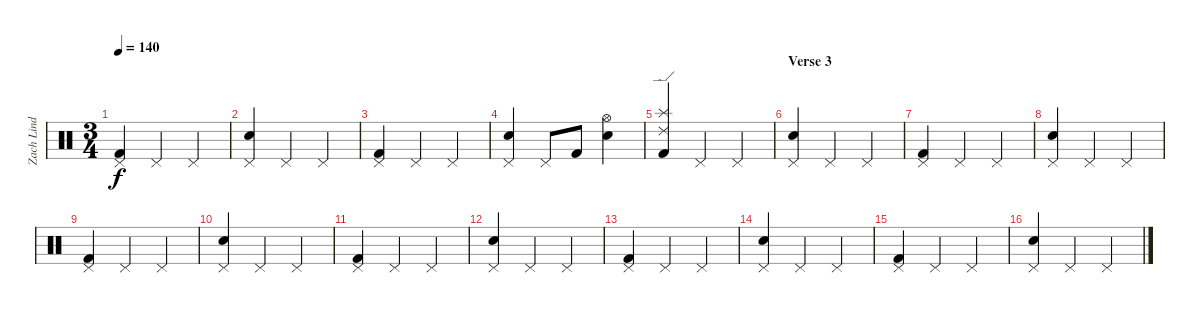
\track ("Zach Lind - Drums" "Zach Lind ") {instrument percussion}
\staff {score}
\articulation defaults
\ts (3 4)
\tempo 140
\clef neutral
\ks c
("Pedal Hi-Hat (hit)" "Kick (hit) 2").4{dy f} "Pedal Hi-Hat (hit)".4 "Pedal Hi-Hat (hit)".4 |
("Pedal Hi-Hat (hit)" "Electric Snare (hit)").4 "Pedal Hi-Hat (hit)".4 "Pedal Hi-Hat (hit)".4 |
("Pedal Hi-Hat (hit)" "Kick (hit) 2").4 "Pedal Hi-Hat (hit)".4 "Pedal Hi-Hat (hit)".4 |
("Pedal Hi-Hat (hit)" "Electric Snare (hit)").4 "Pedal Hi-Hat (hit)".8 "Kick (hit) 2".8 ("Hi-Hat (open)" "Electric Snare (hit)").4 |
("Splash (hit)" "Ride (edge) 2" "Kick (hit) 2").4 "Pedal Hi-Hat (hit)".4 "Pedal Hi-Hat (hit)".4 |
\section ("" "Verse 3")
("Pedal Hi-Hat (hit)" "Electric Snare (hit)").4 "Pedal Hi-Hat (hit)".4 "Pedal Hi-Hat (hit)".4 |
("Pedal Hi-Hat (hit)" "Kick (hit) 2").4 "Pedal Hi-Hat (hit)".4 "Pedal Hi-Hat (hit)".4 |
("Pedal Hi-Hat (hit)" "Electric Snare (hit)").4 "Pedal Hi-Hat (hit)".4 "Pedal Hi-Hat (hit)".4 |
("Pedal Hi-Hat (hit)" "Kick (hit) 2").4 "Pedal Hi-Hat (hit)".4 "Pedal Hi-Hat (hit)".4 |
("Pedal Hi-Hat (hit)" "Electric Snare (hit)").4 "Pedal Hi-Hat (hit)".4 "Pedal Hi-Hat (hit)".4 |
("Pedal Hi-Hat (hit)" "Kick (hit) 2").4 "Pedal Hi-Hat (hit)".4 "Pedal Hi-Hat (hit)".4 |
("Pedal Hi-Hat (hit)" "Electric Snare (hit)").4 "Pedal Hi-Hat (hit)".4 "Pedal Hi-Hat (hit)".4 |
("Pedal Hi-Hat (hit)" "Kick (hit) 2").4 "Pedal Hi-Hat (hit)".4 "Pedal Hi-Hat (hit)".4 |
("Pedal Hi-Hat (hit)" "Electric Snare (hit)").4 "Pedal Hi-Hat (hit)".4 "Pedal Hi-Hat (hit)".4 |
("Pedal Hi-Hat (hit)" "Kick (hit) 2").4 "Pedal Hi-Hat (hit)".4 "Pedal Hi-Hat (hit)".4 |
("Pedal Hi-Hat (hit)" "Electric Snare (hit)").4 "Pedal Hi-Hat (hit)".4 "Pedal Hi-Hat (hit)".4
